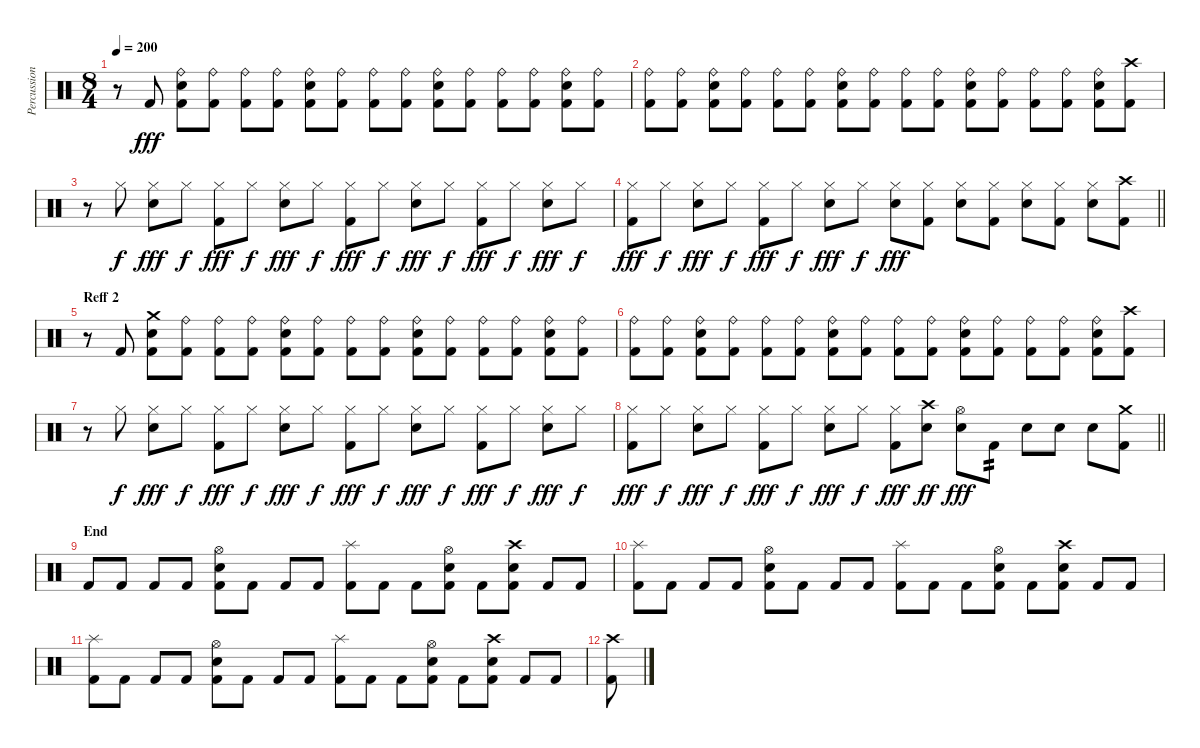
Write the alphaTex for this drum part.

\track ("Percussion" "Percussion") {instrument percussion}
\staff {score}
\articulation defaults
\ts (8 4)
\tempo 200
\clef neutral
\ks c
r.8{dy fff} "Kick (hit) 2".8 ("Ride (bell)" "Electric Snare (hit)" "Kick (hit) 2").8 ("Ride (bell)" "Kick (hit) 2").8 ("Ride (bell)" "Kick (hit) 2").8 ("Ride (bell)" "Kick (hit) 2").8 ("Ride (bell)" "Electric Snare (hit)" "Kick (hit) 2").8 ("Ride (bell)" "Kick (hit) 2").8 ("Ride (bell)" "Kick (hit) 2").8 ("Ride (bell)" "Kick (hit) 2").8 ("Ride (bell)" "Electric Snare (hit)" "Kick (hit) 2").8 ("Ride (bell)" "Kick (hit) 2").8 ("Ride (bell)" "Kick (hit) 2").8 ("Ride (bell)" "Kick (hit) 2").8 ("Ride (bell)" "Electric Snare (hit)" "Kick (hit) 2").8 ("Ride (bell)" "Kick (hit) 2").8 |
("Ride (bell)" "Kick (hit) 2").8 ("Ride (bell)" "Kick (hit) 2").8 ("Ride (bell)" "Electric Snare (hit)" "Kick (hit) 2").8 ("Ride (bell)" "Kick (hit) 2").8 ("Ride (bell)" "Kick (hit) 2").8 ("Ride (bell)" "Kick (hit) 2").8 ("Ride (bell)" "Electric Snare (hit)" "Kick (hit) 2").8 ("Ride (bell)" "Kick (hit) 2").8 ("Ride (bell)" "Kick (hit) 2").8 ("Ride (bell)" "Kick (hit) 2").8 ("Ride (bell)" "Electric Snare (hit)" "Kick (hit) 2").8 ("Ride (bell)" "Kick (hit) 2").8 ("Ride (bell)" "Kick (hit) 2").8 ("Ride (bell)" "Kick (hit) 2").8 ("Ride (bell)" "Electric Snare (hit)" "Kick (hit) 2").8 ("Crash high (hit)" "Kick (hit) 2").8 |
r.8 "Hi-Hat (closed)".8{dy f} ("Hi-Hat (closed)" "Electric Snare (hit)").8{dy fff} "Hi-Hat (closed)".8{dy f} ("Hi-Hat (closed)" "Kick (hit) 2").8{dy fff} "Hi-Hat (closed)".8{dy f} ("Hi-Hat (closed)" "Electric Snare (hit)").8{dy fff} "Hi-Hat (closed)".8{dy f} ("Hi-Hat (closed)" "Kick (hit) 2").8{dy fff} "Hi-Hat (closed)".8{dy f} ("Hi-Hat (closed)" "Electric Snare (hit)").8{dy fff} "Hi-Hat (closed)".8{dy f} ("Hi-Hat (closed)" "Kick (hit) 2").8{dy fff} "Hi-Hat (closed)".8{dy f} ("Hi-Hat (closed)" "Electric Snare (hit)").8{dy fff} "Hi-Hat (closed)".8{dy f} |
\barLineRight lightlight
("Hi-Hat (closed)" "Kick (hit) 2").8{dy fff} "Hi-Hat (closed)".8{dy f} ("Hi-Hat (closed)" "Electric Snare (hit)").8{dy fff} "Hi-Hat (closed)".8{dy f} ("Hi-Hat (closed)" "Kick (hit) 2").8{dy fff} "Hi-Hat (closed)".8{dy f} ("Hi-Hat (closed)" "Electric Snare (hit)").8{dy fff} "Hi-Hat (closed)".8{dy f} ("Hi-Hat (closed)" "Electric Snare (hit)").8{dy fff} ("Hi-Hat (closed)" "Kick (hit) 2").8 ("Hi-Hat (closed)" "Electric Snare (hit)").8 ("Hi-Hat (closed)" "Kick (hit) 2").8 ("Hi-Hat (closed)" "Electric Snare (hit)").8 ("Hi-Hat (closed)" "Kick (hit) 2").8 ("Hi-Hat (closed)" "Electric Snare (hit)").8 ("Crash high (hit)" "Kick (hit) 2").8 |
\section ("" "Reff 2")
r.8 "Kick (hit) 2".8 ("Crash medium (hit)" "Electric Snare (hit)" "Kick (hit) 2").8 ("Ride (bell)" "Kick (hit) 2").8 ("Ride (bell)" "Kick (hit) 2").8 ("Ride (bell)" "Kick (hit) 2").8 ("Ride (bell)" "Electric Snare (hit)" "Kick (hit) 2").8 ("Ride (bell)" "Kick (hit) 2").8 ("Ride (bell)" "Kick (hit) 2").8 ("Ride (bell)" "Kick (hit) 2").8 ("Ride (bell)" "Electric Snare (hit)" "Kick (hit) 2").8 ("Ride (bell)" "Kick (hit) 2").8 ("Ride (bell)" "Kick (hit) 2").8 ("Ride (bell)" "Kick (hit) 2").8 ("Ride (bell)" "Electric Snare (hit)" "Kick (hit) 2").8 ("Ride (bell)" "Kick (hit) 2").8 |
("Ride (bell)" "Kick (hit) 2").8 ("Ride (bell)" "Kick (hit) 2").8 ("Ride (bell)" "Electric Snare (hit)" "Kick (hit) 2").8 ("Ride (bell)" "Kick (hit) 2").8 ("Ride (bell)" "Kick (hit) 2").8 ("Ride (bell)" "Kick (hit) 2").8 ("Ride (bell)" "Electric Snare (hit)" "Kick (hit) 2").8 ("Ride (bell)" "Kick (hit) 2").8 ("Ride (bell)" "Kick (hit) 2").8 ("Ride (bell)" "Kick (hit) 2").8 ("Ride (bell)" "Electric Snare (hit)" "Kick (hit) 2").8 ("Ride (bell)" "Kick (hit) 2").8 ("Ride (bell)" "Kick (hit) 2").8 ("Ride (bell)" "Kick (hit) 2").8 ("Ride (bell)" "Electric Snare (hit)" "Kick (hit) 2").8 ("Crash high (hit)" "Kick (hit) 2").8 |
r.8 "Hi-Hat (closed)".8{dy f} ("Hi-Hat (closed)" "Electric Snare (hit)").8{dy fff} "Hi-Hat (closed)".8{dy f} ("Hi-Hat (closed)" "Kick (hit) 2").8{dy fff} "Hi-Hat (closed)".8{dy f} ("Hi-Hat (closed)" "Electric Snare (hit)").8{dy fff} "Hi-Hat (closed)".8{dy f} ("Hi-Hat (closed)" "Kick (hit) 2").8{dy fff} "Hi-Hat (closed)".8{dy f} ("Hi-Hat (closed)" "Electric Snare (hit)").8{dy fff} "Hi-Hat (closed)".8{dy f} ("Hi-Hat (closed)" "Kick (hit) 2").8{dy fff} "Hi-Hat (closed)".8{dy f} ("Hi-Hat (closed)" "Electric Snare (hit)").8{dy fff} "Hi-Hat (closed)".8{dy f} |
\barLineRight lightlight
("Hi-Hat (closed)" "Kick (hit) 2").8{dy fff} "Hi-Hat (closed)".8{dy f} ("Hi-Hat (closed)" "Electric Snare (hit)").8{dy fff} "Hi-Hat (closed)".8{dy f} ("Hi-Hat (closed)" "Kick (hit) 2").8{dy fff} "Hi-Hat (closed)".8{dy f} ("Hi-Hat (closed)" "Electric Snare (hit)").8{dy fff} "Hi-Hat (closed)".8{dy f} ("Hi-Hat (closed)" "Kick (hit) 2").8{dy fff} ("Crash high (hit)" "Electric Snare (hit)").8{dy ff} ("Hi-Hat (open)" "Electric Snare (hit)").8{dy fff} "Kick (hit) 2".8{tp 2} "Electric Snare (hit)".8 "Electric Snare (hit)".8 "Electric Snare (hit)".8 ("Crash medium (hit)" "Kick (hit) 2").8 |
\section ("" "End")
"Kick (hit) 2".8 "Kick (hit) 2".8 "Kick (hit) 2".8 "Kick (hit) 2".8 ("Hi-Hat (open)" "Electric Snare (hit)" "Kick (hit) 2").8 "Kick (hit) 2".8 "Kick (hit) 2".8 "Kick (hit) 2".8 ("Splash (hit)" "Kick (hit) 2").8 "Kick (hit) 2".8 "Kick (hit) 2".8 ("Hi-Hat (open)" "Electric Snare (hit)" "Kick (hit) 2").8 "Kick (hit) 2".8 ("Crash high (hit)" "Electric Snare (hit)" "Kick (hit) 2").8 "Kick (hit) 2".8 "Kick (hit) 2".8 |
("Splash (hit)" "Kick (hit) 2").8 "Kick (hit) 2".8 "Kick (hit) 2".8 "Kick (hit) 2".8 ("Hi-Hat (open)" "Electric Snare (hit)" "Kick (hit) 2").8 "Kick (hit) 2".8 "Kick (hit) 2".8 "Kick (hit) 2".8 ("Splash (hit)" "Kick (hit) 2").8 "Kick (hit) 2".8 "Kick (hit) 2".8 ("Hi-Hat (open)" "Electric Snare (hit)" "Kick (hit) 2").8 "Kick (hit) 2".8 ("Crash high (hit)" "Electric Snare (hit)" "Kick (hit) 2").8 "Kick (hit) 2".8 "Kick (hit) 2".8 |
("Splash (hit)" "Kick (hit) 2").8 "Kick (hit) 2".8 "Kick (hit) 2".8 "Kick (hit) 2".8 ("Hi-Hat (open)" "Electric Snare (hit)" "Kick (hit) 2").8 "Kick (hit) 2".8 "Kick (hit) 2".8 "Kick (hit) 2".8 ("Splash (hit)" "Kick (hit) 2").8 "Kick (hit) 2".8 "Kick (hit) 2".8 ("Hi-Hat (open)" "Electric Snare (hit)" "Kick (hit) 2").8 "Kick (hit) 2".8 ("Crash high (hit)" "Electric Snare (hit)" "Kick (hit) 2").8 "Kick (hit) 2".8 "Kick (hit) 2".8 |
("Crash high (hit)" "Kick (hit) 2").8
